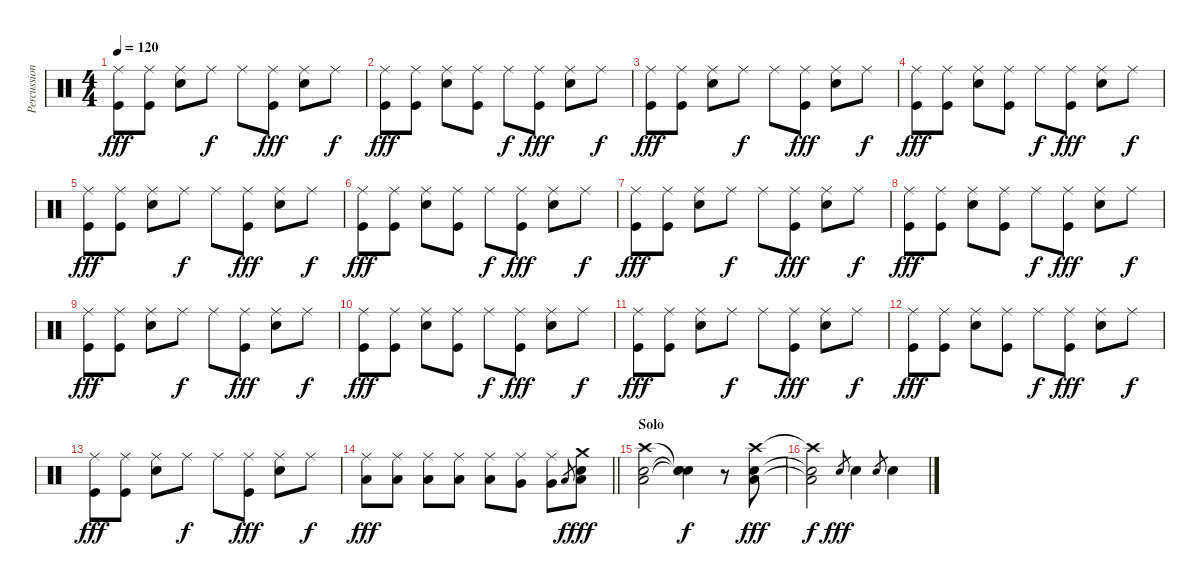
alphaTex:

\track ("Percussion" "Percussion") {instrument percussion}
\staff {score}
\articulation defaults
\ts (4 4)
\tempo 120
\clef neutral
\ks c
("Ride (middle)" "Kick (hit)").8{dy fff} ("Ride (middle)" "Kick (hit)").8 ("Ride (middle)" "Snare (hit) 2").8 "Ride (middle)".8{dy f} "Ride (middle)".8 ("Ride (middle)" "Kick (hit)").8{dy fff} ("Ride (middle)" "Snare (hit) 2").8 "Ride (middle)".8{dy f} |
("Ride (middle)" "Kick (hit)").8{dy fff} ("Ride (middle)" "Kick (hit)").8 ("Ride (middle)" "Snare (hit) 2").8 ("Ride (middle)" "Kick (hit)").8 "Ride (middle)".8{dy f} ("Ride (middle)" "Kick (hit)").8{dy fff} ("Ride (middle)" "Snare (hit) 2").8 "Ride (middle)".8{dy f} |
("Ride (middle)" "Kick (hit)").8{dy fff} ("Ride (middle)" "Kick (hit)").8 ("Ride (middle)" "Snare (hit) 2").8 "Ride (middle)".8{dy f} "Ride (middle)".8 ("Ride (middle)" "Kick (hit)").8{dy fff} ("Ride (middle)" "Snare (hit) 2").8 "Ride (middle)".8{dy f} |
("Ride (middle)" "Kick (hit)").8{dy fff} ("Ride (middle)" "Kick (hit)").8 ("Ride (middle)" "Snare (hit) 2").8 ("Ride (middle)" "Kick (hit)").8 "Ride (middle)".8{dy f} ("Ride (middle)" "Kick (hit)").8{dy fff} ("Ride (middle)" "Snare (hit) 2").8 "Ride (middle)".8{dy f} |
("Ride (middle)" "Kick (hit)").8{dy fff} ("Ride (middle)" "Kick (hit)").8 ("Ride (middle)" "Snare (hit) 2").8 "Ride (middle)".8{dy f} "Ride (middle)".8 ("Ride (middle)" "Kick (hit)").8{dy fff} ("Ride (middle)" "Snare (hit) 2").8 "Ride (middle)".8{dy f} |
("Ride (middle)" "Kick (hit)").8{dy fff} ("Ride (middle)" "Kick (hit)").8 ("Ride (middle)" "Snare (hit) 2").8 ("Ride (middle)" "Kick (hit)").8 "Ride (middle)".8{dy f} ("Ride (middle)" "Kick (hit)").8{dy fff} ("Ride (middle)" "Snare (hit) 2").8 "Ride (middle)".8{dy f} |
("Ride (middle)" "Kick (hit)").8{dy fff} ("Ride (middle)" "Kick (hit)").8 ("Ride (middle)" "Snare (hit) 2").8 "Ride (middle)".8{dy f} "Ride (middle)".8 ("Ride (middle)" "Kick (hit)").8{dy fff} ("Ride (middle)" "Snare (hit) 2").8 "Ride (middle)".8{dy f} |
("Ride (middle)" "Kick (hit)").8{dy fff} ("Ride (middle)" "Kick (hit)").8 ("Ride (middle)" "Snare (hit) 2").8 ("Ride (middle)" "Kick (hit)").8 "Ride (middle)".8{dy f} ("Ride (middle)" "Kick (hit)").8{dy fff} ("Ride (middle)" "Snare (hit) 2").8 "Ride (middle)".8{dy f} |
("Ride (middle)" "Kick (hit)").8{dy fff} ("Ride (middle)" "Kick (hit)").8 ("Ride (middle)" "Snare (hit) 2").8 "Ride (middle)".8{dy f} "Ride (middle)".8 ("Ride (middle)" "Kick (hit)").8{dy fff} ("Ride (middle)" "Snare (hit) 2").8 "Ride (middle)".8{dy f} |
("Ride (middle)" "Kick (hit)").8{dy fff} ("Ride (middle)" "Kick (hit)").8 ("Ride (middle)" "Snare (hit) 2").8 ("Ride (middle)" "Kick (hit)").8 "Ride (middle)".8{dy f} ("Ride (middle)" "Kick (hit)").8{dy fff} ("Ride (middle)" "Snare (hit) 2").8 "Ride (middle)".8{dy f} |
("Ride (middle)" "Kick (hit)").8{dy fff} ("Ride (middle)" "Kick (hit)").8 ("Ride (middle)" "Snare (hit) 2").8 "Ride (middle)".8{dy f} "Ride (middle)".8 ("Ride (middle)" "Kick (hit)").8{dy fff} ("Ride (middle)" "Snare (hit) 2").8 "Ride (middle)".8{dy f} |
("Ride (middle)" "Kick (hit)").8{dy fff} ("Ride (middle)" "Kick (hit)").8 ("Ride (middle)" "Snare (hit) 2").8 ("Ride (middle)" "Kick (hit)").8 "Ride (middle)".8{dy f} ("Ride (middle)" "Kick (hit)").8{dy fff} ("Ride (middle)" "Snare (hit) 2").8 "Ride (middle)".8{dy f} |
("Ride (middle)" "Kick (hit)").8{dy fff} ("Ride (middle)" "Kick (hit)").8 ("Ride (middle)" "Snare (hit) 2").8 "Ride (middle)".8{dy f} "Ride (middle)".8 ("Ride (middle)" "Kick (hit)").8{dy fff} ("Ride (middle)" "Snare (hit) 2").8 "Ride (middle)".8{dy f} |
\barLineRight lightlight
("Ride (middle)" "Low Tom (hit)").8{dy fff} ("Ride (middle)" "Low Tom (hit)").8 ("Ride (middle)" "Low Tom (hit)").8 ("Ride (middle)" "Low Tom (hit)").8 ("Ride (middle)" "Low Tom (hit)").8 ("Ride (middle)" "Very Low Tom (hit)").8 ("Ride (middle)" "Very Low Tom (hit)").8 "Low Tom (hit)".8{gr dy f} ("Crash medium (hit)" "Low Tom (hit)" "Snare (hit) 2").8{dy fff} |
\section ("" "Solo")
("Crash high (hit)" "Low Tom (hit)" "Snare (hit) 2").2 ("Snare (hit)"{t} "Snare (hit)"{t} "Snare (hit)"{t}).4{dy f} r.8 ("Crash high (hit)" "Low Floor Tom (hit)" "Snare (hit) 2").8{dy fff} |
("Crash high (hit)"{t} "Low Floor Tom (hit)"{t} "Snare (hit) 2"{t}).2{dy f} "Snare (hit) 2".8{gr dy fff} "Snare (hit) 2".4 "Snare (hit) 2".8{gr} "Snare (hit) 2".4
